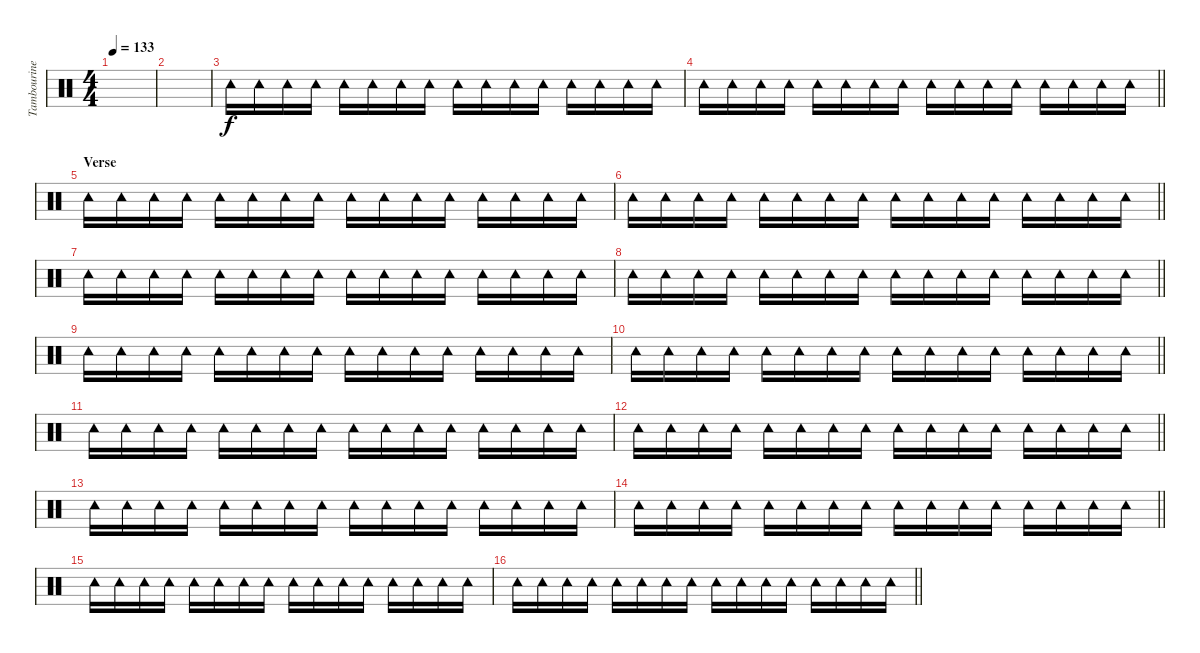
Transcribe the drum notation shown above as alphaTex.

\track ("Tambourine" "Tambourine") {instrument percussion}
\staff {score}
\articulation defaults
\ts (4 4)
\tempo 133
\clef neutral
\ks c
|
|
"Tambourine (hit)".16{dy f} "Tambourine (hit)".16 "Tambourine (hit)".16 "Tambourine (hit)".16 "Tambourine (hit)".16 "Tambourine (hit)".16 "Tambourine (hit)".16 "Tambourine (hit)".16 "Tambourine (hit)".16 "Tambourine (hit)".16 "Tambourine (hit)".16 "Tambourine (hit)".16 "Tambourine (hit)".16 "Tambourine (hit)".16 "Tambourine (hit)".16 "Tambourine (hit)".16 |
\barLineRight lightlight "Tambourine (hit)".16 "Tambourine (hit)".16 "Tambourine (hit)".16 "Tambourine (hit)".16 "Tambourine (hit)".16 "Tambourine (hit)".16 "Tambourine (hit)".16 "Tambourine (hit)".16 "Tambourine (hit)".16 "Tambourine (hit)".16 "Tambourine (hit)".16 "Tambourine (hit)".16 "Tambourine (hit)".16 "Tambourine (hit)".16 "Tambourine (hit)".16 "Tambourine (hit)".16
|
\section ("" "Verse")
"Tambourine (hit)".16 "Tambourine (hit)".16 "Tambourine (hit)".16 "Tambourine (hit)".16 "Tambourine (hit)".16 "Tambourine (hit)".16 "Tambourine (hit)".16 "Tambourine (hit)".16 "Tambourine (hit)".16 "Tambourine (hit)".16 "Tambourine (hit)".16 "Tambourine (hit)".16 "Tambourine (hit)".16 "Tambourine (hit)".16 "Tambourine (hit)".16 "Tambourine (hit)".16 |
\barLineRight lightlight "Tambourine (hit)".16 "Tambourine (hit)".16 "Tambourine (hit)".16 "Tambourine (hit)".16 "Tambourine (hit)".16 "Tambourine (hit)".16 "Tambourine (hit)".16 "Tambourine (hit)".16 "Tambourine (hit)".16 "Tambourine (hit)".16 "Tambourine (hit)".16 "Tambourine (hit)".16 "Tambourine (hit)".16 "Tambourine (hit)".16 "Tambourine (hit)".16 "Tambourine (hit)".16
|
"Tambourine (hit)".16 "Tambourine (hit)".16 "Tambourine (hit)".16 "Tambourine (hit)".16 "Tambourine (hit)".16 "Tambourine (hit)".16 "Tambourine (hit)".16 "Tambourine (hit)".16 "Tambourine (hit)".16 "Tambourine (hit)".16 "Tambourine (hit)".16 "Tambourine (hit)".16 "Tambourine (hit)".16 "Tambourine (hit)".16 "Tambourine (hit)".16 "Tambourine (hit)".16 |
\barLineRight lightlight "Tambourine (hit)".16 "Tambourine (hit)".16 "Tambourine (hit)".16 "Tambourine (hit)".16 "Tambourine (hit)".16 "Tambourine (hit)".16 "Tambourine (hit)".16 "Tambourine (hit)".16 "Tambourine (hit)".16 "Tambourine (hit)".16 "Tambourine (hit)".16 "Tambourine (hit)".16 "Tambourine (hit)".16 "Tambourine (hit)".16 "Tambourine (hit)".16 "Tambourine (hit)".16
|
"Tambourine (hit)".16 "Tambourine (hit)".16 "Tambourine (hit)".16 "Tambourine (hit)".16 "Tambourine (hit)".16 "Tambourine (hit)".16 "Tambourine (hit)".16 "Tambourine (hit)".16 "Tambourine (hit)".16 "Tambourine (hit)".16 "Tambourine (hit)".16 "Tambourine (hit)".16 "Tambourine (hit)".16 "Tambourine (hit)".16 "Tambourine (hit)".16 "Tambourine (hit)".16 |
\barLineRight lightlight "Tambourine (hit)".16 "Tambourine (hit)".16 "Tambourine (hit)".16 "Tambourine (hit)".16 "Tambourine (hit)".16 "Tambourine (hit)".16 "Tambourine (hit)".16 "Tambourine (hit)".16 "Tambourine (hit)".16 "Tambourine (hit)".16 "Tambourine (hit)".16 "Tambourine (hit)".16 "Tambourine (hit)".16 "Tambourine (hit)".16 "Tambourine (hit)".16 "Tambourine (hit)".16
|
"Tambourine (hit)".16 "Tambourine (hit)".16 "Tambourine (hit)".16 "Tambourine (hit)".16 "Tambourine (hit)".16 "Tambourine (hit)".16 "Tambourine (hit)".16 "Tambourine (hit)".16 "Tambourine (hit)".16 "Tambourine (hit)".16 "Tambourine (hit)".16 "Tambourine (hit)".16 "Tambourine (hit)".16 "Tambourine (hit)".16 "Tambourine (hit)".16 "Tambourine (hit)".16 |
\barLineRight lightlight "Tambourine (hit)".16 "Tambourine (hit)".16 "Tambourine (hit)".16 "Tambourine (hit)".16 "Tambourine (hit)".16 "Tambourine (hit)".16 "Tambourine (hit)".16 "Tambourine (hit)".16 "Tambourine (hit)".16 "Tambourine (hit)".16 "Tambourine (hit)".16 "Tambourine (hit)".16 "Tambourine (hit)".16 "Tambourine (hit)".16 "Tambourine (hit)".16 "Tambourine (hit)".16
|
"Tambourine (hit)".16 "Tambourine (hit)".16 "Tambourine (hit)".16 "Tambourine (hit)".16 "Tambourine (hit)".16 "Tambourine (hit)".16 "Tambourine (hit)".16 "Tambourine (hit)".16 "Tambourine (hit)".16 "Tambourine (hit)".16 "Tambourine (hit)".16 "Tambourine (hit)".16 "Tambourine (hit)".16 "Tambourine (hit)".16 "Tambourine (hit)".16 "Tambourine (hit)".16 |
\barLineRight lightlight "Tambourine (hit)".16 "Tambourine (hit)".16 "Tambourine (hit)".16 "Tambourine (hit)".16 "Tambourine (hit)".16 "Tambourine (hit)".16 "Tambourine (hit)".16 "Tambourine (hit)".16 "Tambourine (hit)".16 "Tambourine (hit)".16 "Tambourine (hit)".16 "Tambourine (hit)".16 "Tambourine (hit)".16 "Tambourine (hit)".16 "Tambourine (hit)".16 "Tambourine (hit)".16
|
"Tambourine (hit)".16 "Tambourine (hit)".16 "Tambourine (hit)".16 "Tambourine (hit)".16 "Tambourine (hit)".16 "Tambourine (hit)".16 "Tambourine (hit)".16 "Tambourine (hit)".16 "Tambourine (hit)".16 "Tambourine (hit)".16 "Tambourine (hit)".16 "Tambourine (hit)".16 "Tambourine (hit)".16 "Tambourine (hit)".16 "Tambourine (hit)".16 "Tambourine (hit)".16 |
\barLineRight lightlight "Tambourine (hit)".16 "Tambourine (hit)".16 "Tambourine (hit)".16 "Tambourine (hit)".16 "Tambourine (hit)".16 "Tambourine (hit)".16 "Tambourine (hit)".16 "Tambourine (hit)".16 "Tambourine (hit)".16 "Tambourine (hit)".16 "Tambourine (hit)".16 "Tambourine (hit)".16 "Tambourine (hit)".16 "Tambourine (hit)".16 "Tambourine (hit)".16 "Tambourine (hit)".16
